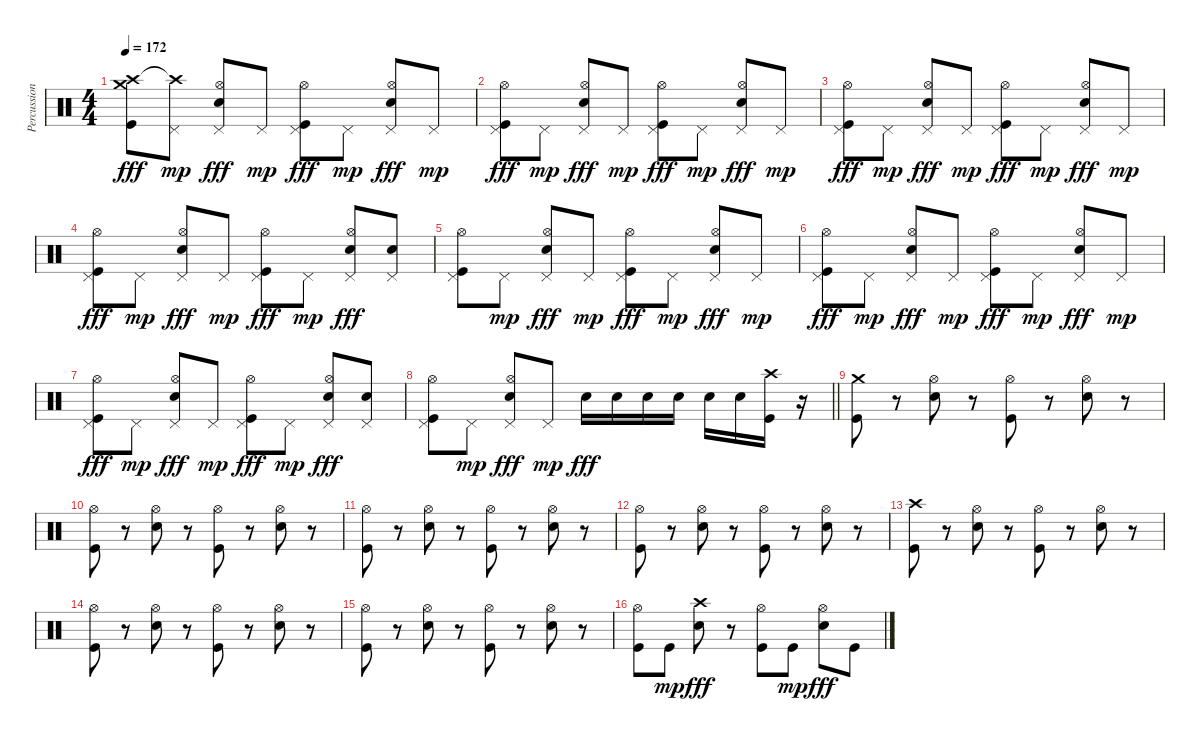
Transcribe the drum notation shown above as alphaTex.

\track ("Percussion" "Percussion") {instrument percussion}
\staff {score}
\articulation defaults
\ts (4 4)
\tempo 172
\clef neutral
\ks c
("Crash medium (hit)" "Crash high (hit)" "Kick (hit)").8{dy fff} ("Pedal Hi-Hat (hit)" "Crash high (hit)"{t}).8{dy mp} ("Pedal Hi-Hat (hit)" "Hi-Hat (open)" "Electric Snare (hit)").8{dy fff} "Pedal Hi-Hat (hit)".8{dy mp} ("Pedal Hi-Hat (hit)" "Hi-Hat (open)" "Kick (hit)").8{dy fff} "Pedal Hi-Hat (hit)".8{dy mp} ("Pedal Hi-Hat (hit)" "Hi-Hat (open)" "Electric Snare (hit)").8{dy fff} "Pedal Hi-Hat (hit)".8{dy mp} |
("Pedal Hi-Hat (hit)" "Hi-Hat (open)" "Kick (hit)").8{dy fff} "Pedal Hi-Hat (hit)".8{dy mp} ("Pedal Hi-Hat (hit)" "Hi-Hat (open)" "Electric Snare (hit)").8{dy fff} "Pedal Hi-Hat (hit)".8{dy mp} ("Pedal Hi-Hat (hit)" "Hi-Hat (open)" "Kick (hit)").8{dy fff} "Pedal Hi-Hat (hit)".8{dy mp} ("Pedal Hi-Hat (hit)" "Hi-Hat (open)" "Electric Snare (hit)").8{dy fff} "Pedal Hi-Hat (hit)".8{dy mp} |
("Pedal Hi-Hat (hit)" "Hi-Hat (open)" "Kick (hit)").8{dy fff} "Pedal Hi-Hat (hit)".8{dy mp} ("Pedal Hi-Hat (hit)" "Hi-Hat (open)" "Electric Snare (hit)").8{dy fff} "Pedal Hi-Hat (hit)".8{dy mp} ("Pedal Hi-Hat (hit)" "Hi-Hat (open)" "Kick (hit)").8{dy fff} "Pedal Hi-Hat (hit)".8{dy mp} ("Pedal Hi-Hat (hit)" "Hi-Hat (open)" "Electric Snare (hit)").8{dy fff} "Pedal Hi-Hat (hit)".8{dy mp} |
("Pedal Hi-Hat (hit)" "Hi-Hat (open)" "Kick (hit)").8{dy fff} "Pedal Hi-Hat (hit)".8{dy mp} ("Pedal Hi-Hat (hit)" "Hi-Hat (open)" "Electric Snare (hit)").8{dy fff} "Pedal Hi-Hat (hit)".8{dy mp} ("Pedal Hi-Hat (hit)" "Hi-Hat (open)" "Kick (hit)").8{dy fff} "Pedal Hi-Hat (hit)".8{dy mp} ("Pedal Hi-Hat (hit)" "Hi-Hat (open)" "Electric Snare (hit)").8{dy fff} ("Pedal Hi-Hat (hit)" "Electric Snare (hit)").8 |
("Pedal Hi-Hat (hit)" "Hi-Hat (open)" "Kick (hit)").8 "Pedal Hi-Hat (hit)".8{dy mp} ("Pedal Hi-Hat (hit)" "Hi-Hat (open)" "Electric Snare (hit)").8{dy fff} "Pedal Hi-Hat (hit)".8{dy mp} ("Pedal Hi-Hat (hit)" "Hi-Hat (open)" "Kick (hit)").8{dy fff} "Pedal Hi-Hat (hit)".8{dy mp} ("Pedal Hi-Hat (hit)" "Hi-Hat (open)" "Electric Snare (hit)").8{dy fff} "Pedal Hi-Hat (hit)".8{dy mp} |
("Pedal Hi-Hat (hit)" "Hi-Hat (open)" "Kick (hit)").8{dy fff} "Pedal Hi-Hat (hit)".8{dy mp} ("Pedal Hi-Hat (hit)" "Hi-Hat (open)" "Electric Snare (hit)").8{dy fff} "Pedal Hi-Hat (hit)".8{dy mp} ("Pedal Hi-Hat (hit)" "Hi-Hat (open)" "Kick (hit)").8{dy fff} "Pedal Hi-Hat (hit)".8{dy mp} ("Pedal Hi-Hat (hit)" "Hi-Hat (open)" "Electric Snare (hit)").8{dy fff} "Pedal Hi-Hat (hit)".8{dy mp} |
("Pedal Hi-Hat (hit)" "Hi-Hat (open)" "Kick (hit)").8{dy fff} "Pedal Hi-Hat (hit)".8{dy mp} ("Pedal Hi-Hat (hit)" "Hi-Hat (open)" "Electric Snare (hit)").8{dy fff} "Pedal Hi-Hat (hit)".8{dy mp} ("Pedal Hi-Hat (hit)" "Hi-Hat (open)" "Kick (hit)").8{dy fff} "Pedal Hi-Hat (hit)".8{dy mp} ("Pedal Hi-Hat (hit)" "Hi-Hat (open)" "Electric Snare (hit)").8{dy fff} ("Pedal Hi-Hat (hit)" "Electric Snare (hit)").8 |
\barLineRight lightlight
("Pedal Hi-Hat (hit)" "Hi-Hat (open)" "Kick (hit)").8 "Pedal Hi-Hat (hit)".8{dy mp} ("Pedal Hi-Hat (hit)" "Hi-Hat (open)" "Electric Snare (hit)").8{dy fff} "Pedal Hi-Hat (hit)".8{dy mp} "Electric Snare (hit)".16{dy fff} "Electric Snare (hit)".16 "Electric Snare (hit)".16 "Electric Snare (hit)".16 "Electric Snare (hit)".16 "Electric Snare (hit)".16 ("Crash high (hit)" "Kick (hit)").16 r.16 |
("Crash medium (hit)" "Kick (hit)").8 r.8 ("Hi-Hat (open)" "Electric Snare (hit)").8 r.8 ("Hi-Hat (open)" "Kick (hit)").8 r.8 ("Hi-Hat (open)" "Electric Snare (hit)").8 r.8 |
("Hi-Hat (open)" "Kick (hit)").8 r.8 ("Hi-Hat (open)" "Electric Snare (hit)").8 r.8 ("Hi-Hat (open)" "Kick (hit)").8 r.8 ("Hi-Hat (open)" "Electric Snare (hit)").8 r.8 |
("Hi-Hat (open)" "Kick (hit)").8 r.8 ("Hi-Hat (open)" "Electric Snare (hit)").8 r.8 ("Hi-Hat (open)" "Kick (hit)").8 r.8 ("Hi-Hat (open)" "Electric Snare (hit)").8 r.8 |
("Hi-Hat (open)" "Kick (hit)").8 r.8 ("Hi-Hat (open)" "Electric Snare (hit)").8 r.8 ("Hi-Hat (open)" "Kick (hit)").8 r.8 ("Hi-Hat (open)" "Electric Snare (hit)").8 r.8 |
("Crash high (hit)" "Kick (hit)").8 r.8 ("Hi-Hat (open)" "Electric Snare (hit)").8 r.8 ("Hi-Hat (open)" "Kick (hit)").8 r.8 ("Hi-Hat (open)" "Electric Snare (hit)").8 r.8 |
("Hi-Hat (open)" "Kick (hit)").8 r.8 ("Hi-Hat (open)" "Electric Snare (hit)").8 r.8 ("Hi-Hat (open)" "Kick (hit)").8 r.8 ("Hi-Hat (open)" "Electric Snare (hit)").8 r.8 |
("Hi-Hat (open)" "Kick (hit)").8 r.8 ("Hi-Hat (open)" "Electric Snare (hit)").8 r.8 ("Hi-Hat (open)" "Kick (hit)").8 r.8 ("Hi-Hat (open)" "Electric Snare (hit)").8 r.8 |
("Hi-Hat (open)" "Kick (hit)").8 "Kick (hit)".8{dy mp} ("Crash high (hit)" "Electric Snare (hit)").8{dy fff} r.8 ("Hi-Hat (open)" "Kick (hit)").8 "Kick (hit)".8{dy mp} ("Hi-Hat (open)" "Electric Snare (hit)").8{dy fff} "Kick (hit)".8
